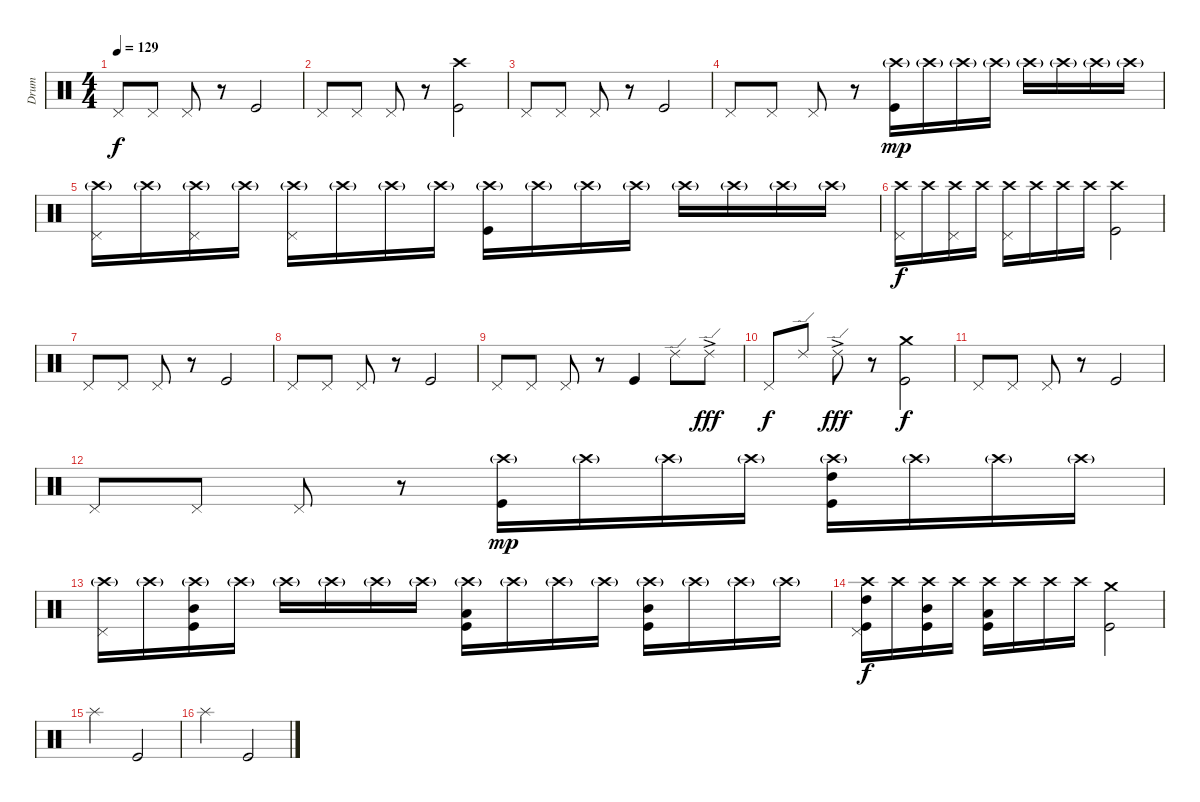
\track ("Drum" "Drum") {instrument percussion}
\staff {score}
\articulation defaults
\ts (4 4)
\tempo 129
\clef neutral
\ks c "Pedal Hi-Hat (hit)".8{dy f volume 1} "Pedal Hi-Hat (hit)".8 "Pedal Hi-Hat (hit)".8
r.8 "Kick (hit)".2{volume 4} |
"Pedal Hi-Hat (hit)".8{volume 1} "Pedal Hi-Hat (hit)".8 "Pedal Hi-Hat (hit)".8 r.8 ("Crash high (hit)" "Kick (hit)").2{volume 4} |
"Pedal Hi-Hat (hit)".8{volume 1} "Pedal Hi-Hat (hit)".8 "Pedal Hi-Hat (hit)".8 r.8 "Kick (hit)".2{volume 4} |
"Pedal Hi-Hat (hit)".8{volume 1} "Pedal Hi-Hat (hit)".8 "Pedal Hi-Hat (hit)".8 r.8 ("Crash high (hit)"{g} "Kick (hit)").16{dy mp} "Crash high (hit)"{g}.16 "Crash high (hit)"{g}.16 "Crash high (hit)"{g}.16 "Crash high (hit)"{g}.16 "Crash high (hit)"{g}.16 "Crash high (hit)"{g}.16 "Crash high (hit)"{g}.16 |
("Crash high (hit)"{g} "Pedal Hi-Hat (hit)").16{volume 1} "Crash high (hit)"{g}.16 ("Crash high (hit)"{g} "Pedal Hi-Hat (hit)").16 "Crash high (hit)"{g}.16 ("Crash high (hit)"{g} "Pedal Hi-Hat (hit)").16 "Crash high (hit)"{g}.16 "Crash high (hit)"{g}.16 "Crash high (hit)"{g}.16 ("Crash high (hit)"{g} "Kick (hit)").16 "Crash high (hit)"{g}.16 "Crash high (hit)"{g}.16 "Crash high (hit)"{g}.16 "Crash high (hit)"{g}.16 "Crash high (hit)"{g}.16 "Crash high (hit)"{g}.16 "Crash high (hit)"{g}.16 |
("Crash high (hit)" "Pedal Hi-Hat (hit)").16{dy f volume 1} "Crash high (hit)".16 ("Crash high (hit)" "Pedal Hi-Hat (hit)").16 "Crash high (hit)".16 ("Crash high (hit)" "Pedal Hi-Hat (hit)").16 "Crash high (hit)".16 "Crash high (hit)".16 "Crash high (hit)".16 ("Crash high (hit)" "Kick (hit)").2{volume 4} |
"Pedal Hi-Hat (hit)".8{volume 1} "Pedal Hi-Hat (hit)".8 "Pedal Hi-Hat (hit)".8 r.8 "Kick (hit)".2{volume 4} |
"Pedal Hi-Hat (hit)".8{volume 1} "Pedal Hi-Hat (hit)".8 "Pedal Hi-Hat (hit)".8 r.8 "Kick (hit)".2{volume 4} |
"Pedal Hi-Hat (hit)".8{volume 1} "Pedal Hi-Hat (hit)".8 "Pedal Hi-Hat (hit)".8 r.8 "Kick (hit)".4{volume 4} "Ride (edge) 2".8 "Ride (edge) 2"{ac}.8{dy fff} |
"Pedal Hi-Hat (hit)".8{dy f} "Ride (edge) 2".8 "Ride (edge) 2"{ac}.8{dy fff} r.8 ("Crash medium (hit)" "Kick (hit)").2{dy f} |
"Pedal Hi-Hat (hit)".8{volume 1} "Pedal Hi-Hat (hit)".8 "Pedal Hi-Hat (hit)".8 r.8 "Kick (hit)".2{volume 4} |
"Pedal Hi-Hat (hit)".8{volume 1} "Pedal Hi-Hat (hit)".8 "Pedal Hi-Hat (hit)".8 r.8 ("Crash high (hit)"{g} "Kick (hit)").16{dy mp volume 4} "Crash high (hit)"{g}.16 "Crash high (hit)"{g}.16 "Crash high (hit)"{g}.16 ("Crash high (hit)"{g} "High Tom (hit)" "Kick (hit)").16 "Crash high (hit)"{g}.16 "Crash high (hit)"{g}.16 "Crash high (hit)"{g}.16 |
("Crash high (hit)"{g} "Pedal Hi-Hat (hit)").16 "Crash high (hit)"{g}.16 ("Crash high (hit)"{g} "Mid Tom (hit)" "Kick (hit)").16 "Crash high (hit)"{g}.16 "Crash high (hit)"{g}.16 "Crash high (hit)"{g}.16 "Crash high (hit)"{g}.16 "Crash high (hit)"{g}.16 ("Crash high (hit)"{g} "Low Tom (hit)" "Kick (hit)").16 "Crash high (hit)"{g}.16 "Crash high (hit)"{g}.16 "Crash high (hit)"{g}.16 ("Crash high (hit)"{g} "Mid Tom (hit)" "Kick (hit)").16 "Crash high (hit)"{g}.16 "Crash high (hit)"{g}.16 "Crash high (hit)"{g}.16 |
("Crash high (hit)" "High Tom (hit)" "Pedal Hi-Hat (hit)" "Kick (hit)").16{dy f} "Crash high (hit)".16 ("Crash high (hit)" "Mid Tom (hit)" "Kick (hit)").16 "Crash high (hit)".16 ("Crash high (hit)" "Low Tom (hit)" "Kick (hit)").16 "Crash high (hit)".16 "Crash high (hit)".16 "Crash high (hit)".16 ("Crash medium (hit)" "Kick (hit)").2{volume 4} |
"Splash (hit)".2 "Kick (hit)".2 |
"Splash (hit)".2 "Kick (hit)".2
